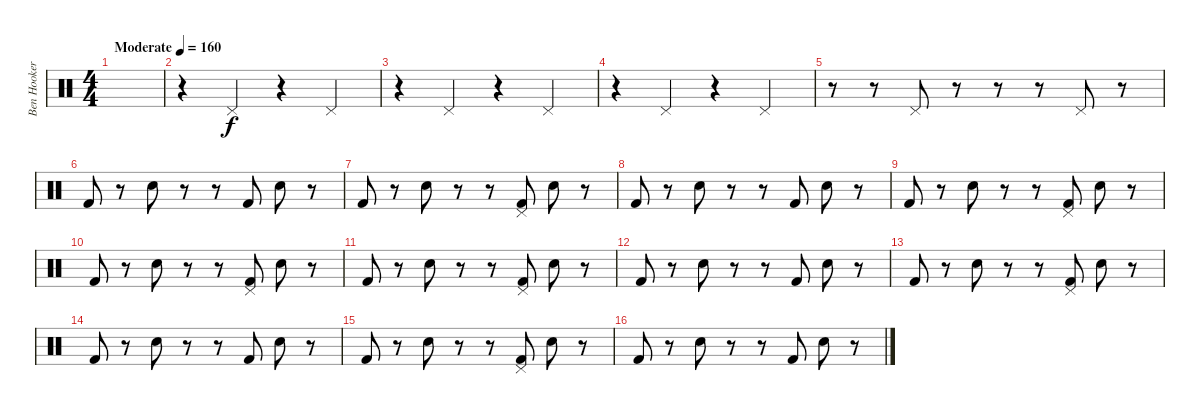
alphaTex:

\track ("Ben Hooker" "Ben Hooker") {instrument percussion}
\staff {score}
\articulation defaults
\ts (4 4)
\tempo (160 "Moderate")
\clef neutral
\ks c
|
r.4 "Pedal Hi-Hat (hit)".4 r.4 "Pedal Hi-Hat (hit)".4 |
r.4 "Pedal Hi-Hat (hit)".4 r.4 "Pedal Hi-Hat (hit)".4 |
r.4 "Pedal Hi-Hat (hit)".4 r.4 "Pedal Hi-Hat (hit)".4 |
r.8 r.8 "Pedal Hi-Hat (hit)".8 r.8 r.8 r.8 "Pedal Hi-Hat (hit)".8 r.8 |
"Kick (hit) 2".8 r.8 "Snare (hit) 2".8 r.8 r.8 "Kick (hit) 2".8 "Snare (hit) 2".8 r.8 |
"Kick (hit) 2".8 r.8 "Snare (hit) 2".8 r.8 r.8 ("Pedal Hi-Hat (hit)" "Kick (hit) 2").8 "Snare (hit) 2".8 r.8 |
"Kick (hit) 2".8 r.8 "Snare (hit) 2".8 r.8 r.8 "Kick (hit) 2".8 "Snare (hit) 2".8 r.8 |
"Kick (hit) 2".8 r.8 "Snare (hit) 2".8 r.8 r.8 ("Pedal Hi-Hat (hit)" "Kick (hit) 2").8 "Snare (hit) 2".8 r.8 |
"Kick (hit) 2".8 r.8 "Snare (hit) 2".8 r.8 r.8 ("Pedal Hi-Hat (hit)" "Kick (hit) 2").8 "Snare (hit) 2".8 r.8 |
"Kick (hit) 2".8 r.8 "Snare (hit) 2".8 r.8 r.8 ("Pedal Hi-Hat (hit)" "Kick (hit) 2").8 "Snare (hit) 2".8 r.8 |
"Kick (hit) 2".8 r.8 "Snare (hit) 2".8 r.8 r.8 "Kick (hit) 2".8 "Snare (hit) 2".8 r.8 |
"Kick (hit) 2".8 r.8 "Snare (hit) 2".8 r.8 r.8 ("Pedal Hi-Hat (hit)" "Kick (hit) 2").8 "Snare (hit) 2".8 r.8 |
"Kick (hit) 2".8 r.8 "Snare (hit) 2".8 r.8 r.8 "Kick (hit) 2".8 "Snare (hit) 2".8 r.8 |
"Kick (hit) 2".8 r.8 "Snare (hit) 2".8 r.8 r.8 ("Pedal Hi-Hat (hit)" "Kick (hit) 2").8 "Snare (hit) 2".8 r.8 |
"Kick (hit) 2".8 r.8 "Snare (hit) 2".8 r.8 r.8 "Kick (hit) 2".8 "Snare (hit) 2".8 r.8
